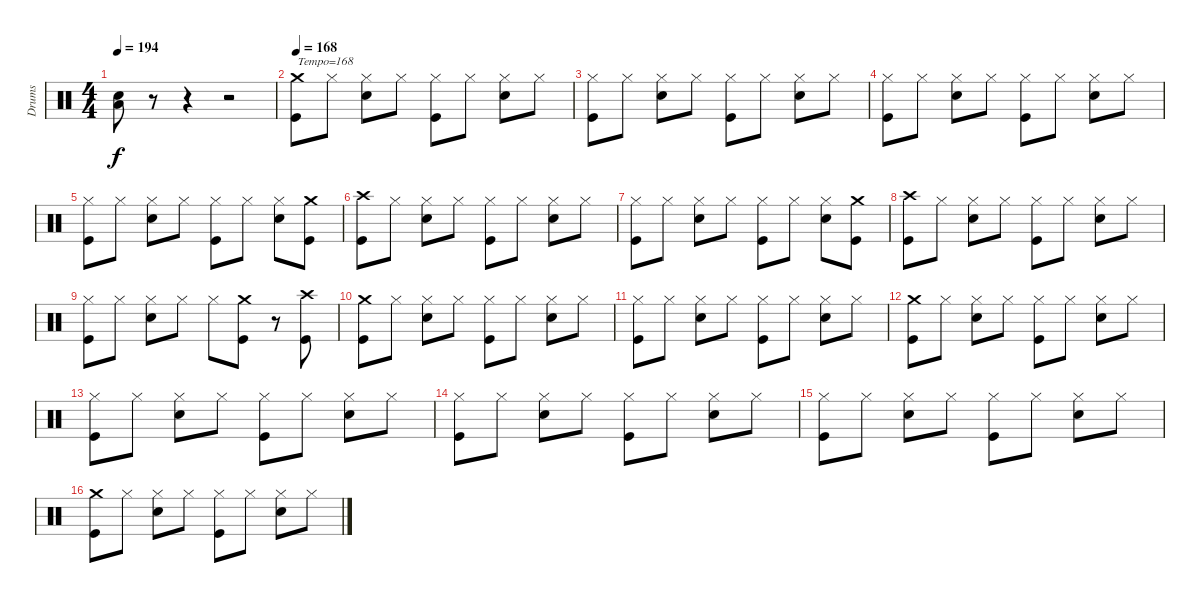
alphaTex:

\track ("Drums" "Drums") {instrument percussion}
\staff {score}
\articulation defaults
\ts (4 4)
\tempo 194
\clef neutral
\ks c
("Low Floor Tom (hit)" "Snare (hit) 2").8{dy f} r.8 r.4 r.2 |
\tempo 168
("Crash medium (hit)" "Kick (hit)").8{txt "Tempo=168"} "Hi-Hat (closed)".8 ("Hi-Hat (closed)" "Snare (hit) 2").8 "Hi-Hat (closed)".8 ("Hi-Hat (closed)" "Kick (hit)").8 "Hi-Hat (closed)".8 ("Hi-Hat (closed)" "Snare (hit) 2").8 "Hi-Hat (closed)".8 |
("Hi-Hat (closed)" "Kick (hit)").8 "Hi-Hat (closed)".8 ("Hi-Hat (closed)" "Snare (hit) 2").8 "Hi-Hat (closed)".8 ("Hi-Hat (closed)" "Kick (hit)").8 "Hi-Hat (closed)".8 ("Hi-Hat (closed)" "Snare (hit) 2").8 "Hi-Hat (closed)".8 |
("Hi-Hat (closed)" "Kick (hit)").8 "Hi-Hat (closed)".8 ("Hi-Hat (closed)" "Snare (hit) 2").8 "Hi-Hat (closed)".8 ("Hi-Hat (closed)" "Kick (hit)").8 "Hi-Hat (closed)".8 ("Hi-Hat (closed)" "Snare (hit) 2").8 "Hi-Hat (closed)".8 |
("Hi-Hat (closed)" "Kick (hit)").8 "Hi-Hat (closed)".8 ("Hi-Hat (closed)" "Snare (hit) 2").8 "Hi-Hat (closed)".8 ("Hi-Hat (closed)" "Kick (hit)").8 "Hi-Hat (closed)".8 ("Hi-Hat (closed)" "Snare (hit) 2").8 ("Crash medium (hit)" "Kick (hit)").8 |
("Crash high (hit)" "Kick (hit)").8 "Hi-Hat (closed)".8 ("Hi-Hat (closed)" "Snare (hit) 2").8 "Hi-Hat (closed)".8 ("Hi-Hat (closed)" "Kick (hit)").8 "Hi-Hat (closed)".8 ("Hi-Hat (closed)" "Snare (hit) 2").8 "Hi-Hat (closed)".8 |
("Hi-Hat (closed)" "Kick (hit)").8 "Hi-Hat (closed)".8 ("Hi-Hat (closed)" "Snare (hit) 2").8 "Hi-Hat (closed)".8 ("Hi-Hat (closed)" "Kick (hit)").8 "Hi-Hat (closed)".8 ("Hi-Hat (closed)" "Snare (hit) 2").8 ("Crash medium (hit)" "Kick (hit)").8 |
("Crash high (hit)" "Kick (hit)").8 "Hi-Hat (closed)".8 ("Hi-Hat (closed)" "Snare (hit) 2").8 "Hi-Hat (closed)".8 ("Hi-Hat (closed)" "Kick (hit)").8 "Hi-Hat (closed)".8 ("Hi-Hat (closed)" "Snare (hit) 2").8 "Hi-Hat (closed)".8 |
("Hi-Hat (closed)" "Kick (hit)").8 "Hi-Hat (closed)".8 ("Hi-Hat (closed)" "Snare (hit) 2").8 "Hi-Hat (closed)".8 "Hi-Hat (closed)".8 ("Crash medium (hit)" "Kick (hit)").8 r.8 ("Crash high (hit)" "Kick (hit)").8 |
("Crash medium (hit)" "Kick (hit)").8 "Hi-Hat (closed)".8 ("Hi-Hat (closed)" "Snare (hit) 2").8 "Hi-Hat (closed)".8 ("Hi-Hat (closed)" "Kick (hit)").8 "Hi-Hat (closed)".8 ("Hi-Hat (closed)" "Snare (hit) 2").8 "Hi-Hat (closed)".8 |
("Hi-Hat (closed)" "Kick (hit)").8 "Hi-Hat (closed)".8 ("Hi-Hat (closed)" "Snare (hit) 2").8 "Hi-Hat (closed)".8 ("Hi-Hat (closed)" "Kick (hit)").8 "Hi-Hat (closed)".8 ("Hi-Hat (closed)" "Snare (hit) 2").8 "Hi-Hat (closed)".8 |
("Crash medium (hit)" "Kick (hit)").8 "Hi-Hat (closed)".8 ("Hi-Hat (closed)" "Snare (hit) 2").8 "Hi-Hat (closed)".8 ("Hi-Hat (closed)" "Kick (hit)").8 "Hi-Hat (closed)".8 ("Hi-Hat (closed)" "Snare (hit) 2").8 "Hi-Hat (closed)".8 |
("Hi-Hat (closed)" "Kick (hit)").8 "Hi-Hat (closed)".8 ("Hi-Hat (closed)" "Snare (hit) 2").8 "Hi-Hat (closed)".8 ("Hi-Hat (closed)" "Kick (hit)").8 "Hi-Hat (closed)".8 ("Hi-Hat (closed)" "Snare (hit) 2").8 "Hi-Hat (closed)".8 |
("Hi-Hat (closed)" "Kick (hit)").8 "Hi-Hat (closed)".8 ("Hi-Hat (closed)" "Snare (hit) 2").8 "Hi-Hat (closed)".8 ("Hi-Hat (closed)" "Kick (hit)").8 "Hi-Hat (closed)".8 ("Hi-Hat (closed)" "Snare (hit) 2").8 "Hi-Hat (closed)".8 |
("Hi-Hat (closed)" "Kick (hit)").8 "Hi-Hat (closed)".8 ("Hi-Hat (closed)" "Snare (hit) 2").8 "Hi-Hat (closed)".8 ("Hi-Hat (closed)" "Kick (hit)").8 "Hi-Hat (closed)".8 ("Hi-Hat (closed)" "Snare (hit) 2").8 "Hi-Hat (closed)".8 |
("Crash medium (hit)" "Kick (hit)").8 "Hi-Hat (closed)".8 ("Hi-Hat (closed)" "Snare (hit) 2").8 "Hi-Hat (closed)".8 ("Hi-Hat (closed)" "Kick (hit)").8 "Hi-Hat (closed)".8 ("Hi-Hat (closed)" "Snare (hit) 2").8 "Hi-Hat (closed)".8
